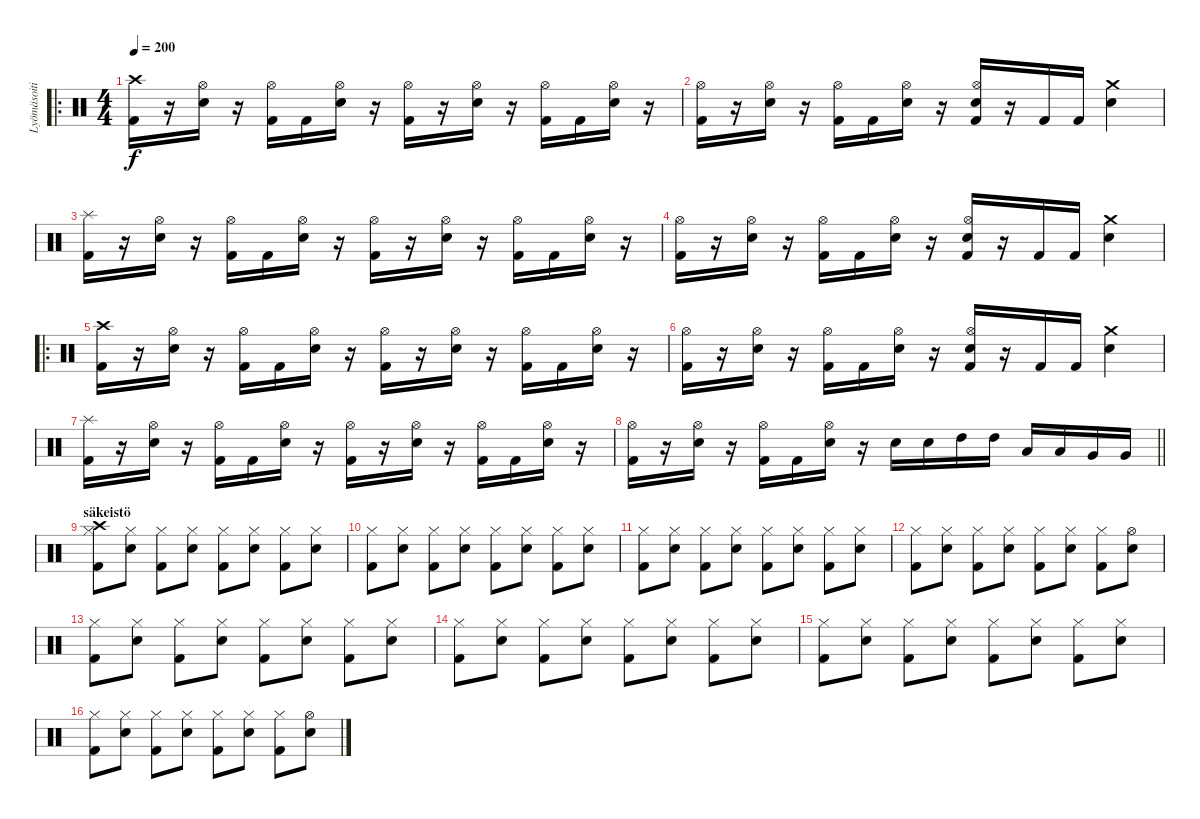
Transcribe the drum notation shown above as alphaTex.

\track ("Lyömäsoitin" "Lyömäsoiti") {instrument percussion}
\staff {score}
\articulation defaults
\ro
\ts (4 4)
\tempo 200
\clef neutral
\ks c
("Crash high (hit)" "Kick (hit) 2").16{dy f} r.16 ("Hi-Hat (open)" "Electric Snare (hit)").16 r.16 ("Hi-Hat (open)" "Kick (hit) 2").16 "Kick (hit) 2".16 ("Hi-Hat (open)" "Electric Snare (hit)").16 r.16 ("Hi-Hat (open)" "Kick (hit) 2").16 r.16 ("Hi-Hat (open)" "Electric Snare (hit)").16 r.16 ("Hi-Hat (open)" "Kick (hit) 2").16 "Kick (hit) 2".16 ("Hi-Hat (open)" "Electric Snare (hit)").16 r.16 |
("Hi-Hat (open)" "Kick (hit) 2").16 r.16 ("Hi-Hat (open)" "Electric Snare (hit)").16 r.16 ("Hi-Hat (open)" "Kick (hit) 2").16 "Kick (hit) 2".16 ("Hi-Hat (open)" "Electric Snare (hit)").16 r.16 ("Hi-Hat (open)" "Electric Snare (hit)" "Kick (hit) 2").16 r.16 "Kick (hit) 2".16 "Kick (hit) 2".16 ("Crash medium (hit)" "Electric Snare (hit)").4 |
("Splash (hit)" "Kick (hit) 2").16 r.16 ("Hi-Hat (open)" "Electric Snare (hit)").16 r.16 ("Hi-Hat (open)" "Kick (hit) 2").16 "Kick (hit) 2".16 ("Hi-Hat (open)" "Electric Snare (hit)").16 r.16 ("Hi-Hat (open)" "Kick (hit) 2").16 r.16 ("Hi-Hat (open)" "Electric Snare (hit)").16 r.16 ("Hi-Hat (open)" "Kick (hit) 2").16 "Kick (hit) 2".16 ("Hi-Hat (open)" "Electric Snare (hit)").16 r.16 |
("Hi-Hat (open)" "Kick (hit) 2").16 r.16 ("Hi-Hat (open)" "Electric Snare (hit)").16 r.16 ("Hi-Hat (open)" "Kick (hit) 2").16 "Kick (hit) 2".16 ("Hi-Hat (open)" "Electric Snare (hit)").16 r.16 ("Hi-Hat (open)" "Electric Snare (hit)" "Kick (hit) 2").16 r.16 "Kick (hit) 2".16 "Kick (hit) 2".16 ("Crash medium (hit)" "Electric Snare (hit)").4 |
\ro
("Crash high (hit)" "Kick (hit) 2").16 r.16 ("Hi-Hat (open)" "Electric Snare (hit)").16 r.16 ("Hi-Hat (open)" "Kick (hit) 2").16 "Kick (hit) 2".16 ("Hi-Hat (open)" "Electric Snare (hit)").16 r.16 ("Hi-Hat (open)" "Kick (hit) 2").16 r.16 ("Hi-Hat (open)" "Electric Snare (hit)").16 r.16 ("Hi-Hat (open)" "Kick (hit) 2").16 "Kick (hit) 2".16 ("Hi-Hat (open)" "Electric Snare (hit)").16 r.16 |
("Hi-Hat (open)" "Kick (hit) 2").16 r.16 ("Hi-Hat (open)" "Electric Snare (hit)").16 r.16 ("Hi-Hat (open)" "Kick (hit) 2").16 "Kick (hit) 2".16 ("Hi-Hat (open)" "Electric Snare (hit)").16 r.16 ("Hi-Hat (open)" "Electric Snare (hit)" "Kick (hit) 2").16 r.16 "Kick (hit) 2".16 "Kick (hit) 2".16 ("Crash medium (hit)" "Electric Snare (hit)").4 |
("Splash (hit)" "Kick (hit) 2").16 r.16 ("Hi-Hat (open)" "Electric Snare (hit)").16 r.16 ("Hi-Hat (open)" "Kick (hit) 2").16 "Kick (hit) 2".16 ("Hi-Hat (open)" "Electric Snare (hit)").16 r.16 ("Hi-Hat (open)" "Kick (hit) 2").16 r.16 ("Hi-Hat (open)" "Electric Snare (hit)").16 r.16 ("Hi-Hat (open)" "Kick (hit) 2").16 "Kick (hit) 2".16 ("Hi-Hat (open)" "Electric Snare (hit)").16 r.16 |
\barLineRight lightlight
("Hi-Hat (open)" "Kick (hit) 2").16 r.16 ("Hi-Hat (open)" "Electric Snare (hit)").16 r.16 ("Hi-Hat (open)" "Kick (hit) 2").16 "Kick (hit) 2".16 ("Hi-Hat (open)" "Electric Snare (hit)").16 r.16 "Electric Snare (hit)".16 "Electric Snare (hit)".16 "High Tom (hit)".16 "High Tom (hit)".16 "Low Tom (hit)".16 "Low Tom (hit)".16 "Very Low Tom (hit)".16 "Very Low Tom (hit)".16 |
\section ("" "säkeistö")
("Crash high (hit)" "Hi-Hat (closed)" "Kick (hit) 2").8 ("Hi-Hat (closed)" "Electric Snare (hit)").8 ("Hi-Hat (closed)" "Kick (hit) 2").8 ("Hi-Hat (closed)" "Electric Snare (hit)").8 ("Hi-Hat (closed)" "Kick (hit) 2").8 ("Hi-Hat (closed)" "Electric Snare (hit)").8 ("Hi-Hat (closed)" "Kick (hit) 2").8 ("Hi-Hat (closed)" "Electric Snare (hit)").8 |
("Hi-Hat (closed)" "Kick (hit) 2").8 ("Hi-Hat (closed)" "Electric Snare (hit)").8 ("Hi-Hat (closed)" "Kick (hit) 2").8 ("Hi-Hat (closed)" "Electric Snare (hit)").8 ("Hi-Hat (closed)" "Kick (hit) 2").8 ("Hi-Hat (closed)" "Electric Snare (hit)").8 ("Hi-Hat (closed)" "Kick (hit) 2").8 ("Hi-Hat (closed)" "Electric Snare (hit)").8 |
("Hi-Hat (closed)" "Kick (hit) 2").8 ("Hi-Hat (closed)" "Electric Snare (hit)").8 ("Hi-Hat (closed)" "Kick (hit) 2").8 ("Hi-Hat (closed)" "Electric Snare (hit)").8 ("Hi-Hat (closed)" "Kick (hit) 2").8 ("Hi-Hat (closed)" "Electric Snare (hit)").8 ("Hi-Hat (closed)" "Kick (hit) 2").8 ("Hi-Hat (closed)" "Electric Snare (hit)").8 |
("Hi-Hat (closed)" "Kick (hit) 2").8 ("Hi-Hat (closed)" "Electric Snare (hit)").8 ("Hi-Hat (closed)" "Kick (hit) 2").8 ("Hi-Hat (closed)" "Electric Snare (hit)").8 ("Hi-Hat (closed)" "Kick (hit) 2").8 ("Hi-Hat (closed)" "Electric Snare (hit)").8 ("Hi-Hat (closed)" "Kick (hit) 2").8 ("Hi-Hat (open)" "Electric Snare (hit)").8 |
("Hi-Hat (closed)" "Kick (hit) 2").8 ("Hi-Hat (closed)" "Electric Snare (hit)").8 ("Hi-Hat (closed)" "Kick (hit) 2").8 ("Hi-Hat (closed)" "Electric Snare (hit)").8 ("Hi-Hat (closed)" "Kick (hit) 2").8 ("Hi-Hat (closed)" "Electric Snare (hit)").8 ("Hi-Hat (closed)" "Kick (hit) 2").8 ("Hi-Hat (closed)" "Electric Snare (hit)").8 |
("Hi-Hat (closed)" "Kick (hit) 2").8 ("Hi-Hat (closed)" "Electric Snare (hit)").8 ("Hi-Hat (closed)" "Kick (hit) 2").8 ("Hi-Hat (closed)" "Electric Snare (hit)").8 ("Hi-Hat (closed)" "Kick (hit) 2").8 ("Hi-Hat (closed)" "Electric Snare (hit)").8 ("Hi-Hat (closed)" "Kick (hit) 2").8 ("Hi-Hat (closed)" "Electric Snare (hit)").8 |
("Hi-Hat (closed)" "Kick (hit) 2").8 ("Hi-Hat (closed)" "Electric Snare (hit)").8 ("Hi-Hat (closed)" "Kick (hit) 2").8 ("Hi-Hat (closed)" "Electric Snare (hit)").8 ("Hi-Hat (closed)" "Kick (hit) 2").8 ("Hi-Hat (closed)" "Electric Snare (hit)").8 ("Hi-Hat (closed)" "Kick (hit) 2").8 ("Hi-Hat (closed)" "Electric Snare (hit)").8 |
("Hi-Hat (closed)" "Kick (hit) 2").8 ("Hi-Hat (closed)" "Electric Snare (hit)").8 ("Hi-Hat (closed)" "Kick (hit) 2").8 ("Hi-Hat (closed)" "Electric Snare (hit)").8 ("Hi-Hat (closed)" "Kick (hit) 2").8 ("Hi-Hat (closed)" "Electric Snare (hit)").8 ("Hi-Hat (closed)" "Kick (hit) 2").8 ("Hi-Hat (open)" "Electric Snare (hit)").8
